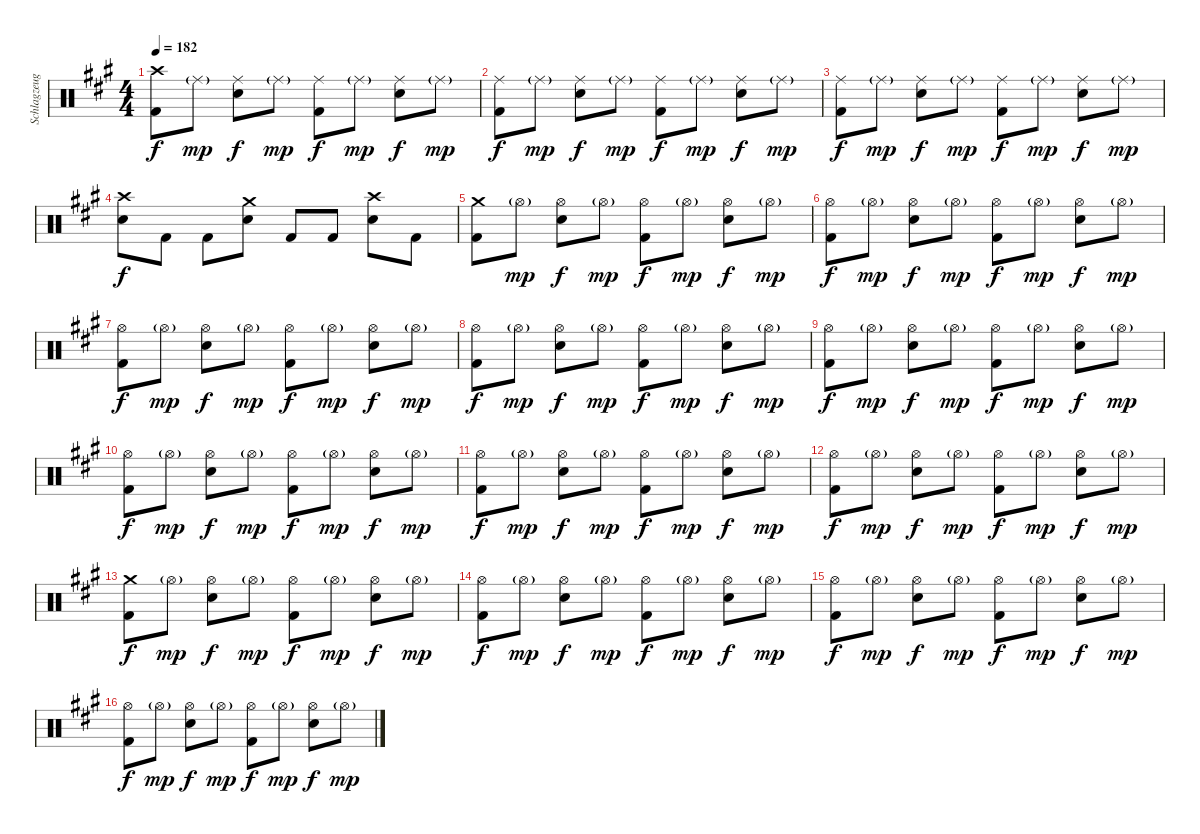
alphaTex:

\track ("Schlagzeug" "Schlagzeug") {instrument percussion}
\staff {score}
\articulation defaults
\ts (4 4)
\tempo 182
\clef neutral
\ks a
("Crash high (hit)" "Kick (hit) 2").8{dy f} "Ride (middle)"{g}.8{dy mp} ("Ride (middle)" "Snare (hit) 2").8{dy f} "Ride (middle)"{g}.8{dy mp} ("Ride (middle)" "Kick (hit) 2").8{dy f} "Ride (middle)"{g}.8{dy mp} ("Ride (middle)" "Snare (hit) 2").8{dy f} "Ride (middle)"{g}.8{dy mp} |
("Ride (middle)" "Kick (hit) 2").8{dy f} "Ride (middle)"{g}.8{dy mp} ("Ride (middle)" "Snare (hit) 2").8{dy f} "Ride (middle)"{g}.8{dy mp} ("Ride (middle)" "Kick (hit) 2").8{dy f} "Ride (middle)"{g}.8{dy mp} ("Ride (middle)" "Snare (hit) 2").8{dy f} "Ride (middle)"{g}.8{dy mp} |
("Ride (middle)" "Kick (hit) 2").8{dy f} "Ride (middle)"{g}.8{dy mp} ("Ride (middle)" "Snare (hit) 2").8{dy f} "Ride (middle)"{g}.8{dy mp} ("Ride (middle)" "Kick (hit) 2").8{dy f} "Ride (middle)"{g}.8{dy mp} ("Ride (middle)" "Snare (hit) 2").8{dy f} "Ride (middle)"{g}.8{dy mp} |
("Crash high (hit)" "Snare (hit) 2").8{dy f} "Kick (hit) 2".8 "Kick (hit) 2".8 ("Crash medium (hit)" "Snare (hit) 2").8 "Kick (hit) 2".8 "Kick (hit) 2".8 ("Crash high (hit)" "Snare (hit) 2").8 "Kick (hit) 2".8 |
("Crash medium (hit)" "Kick (hit) 2").8 "Hi-Hat (open)"{g}.8{dy mp} ("Hi-Hat (open)" "Snare (hit) 2").8{dy f} "Hi-Hat (open)"{g}.8{dy mp} ("Hi-Hat (open)" "Kick (hit) 2").8{dy f} "Hi-Hat (open)"{g}.8{dy mp} ("Hi-Hat (open)" "Snare (hit) 2").8{dy f} "Hi-Hat (open)"{g}.8{dy mp} |
("Hi-Hat (open)" "Kick (hit) 2").8{dy f} "Hi-Hat (open)"{g}.8{dy mp} ("Hi-Hat (open)" "Snare (hit) 2").8{dy f} "Hi-Hat (open)"{g}.8{dy mp} ("Hi-Hat (open)" "Kick (hit) 2").8{dy f} "Hi-Hat (open)"{g}.8{dy mp} ("Hi-Hat (open)" "Snare (hit) 2").8{dy f} "Hi-Hat (open)"{g}.8{dy mp} |
("Hi-Hat (open)" "Kick (hit) 2").8{dy f} "Hi-Hat (open)"{g}.8{dy mp} ("Hi-Hat (open)" "Snare (hit) 2").8{dy f} "Hi-Hat (open)"{g}.8{dy mp} ("Hi-Hat (open)" "Kick (hit) 2").8{dy f} "Hi-Hat (open)"{g}.8{dy mp} ("Hi-Hat (open)" "Snare (hit) 2").8{dy f} "Hi-Hat (open)"{g}.8{dy mp} |
("Hi-Hat (open)" "Kick (hit) 2").8{dy f} "Hi-Hat (open)"{g}.8{dy mp} ("Hi-Hat (open)" "Snare (hit) 2").8{dy f} "Hi-Hat (open)"{g}.8{dy mp} ("Hi-Hat (open)" "Kick (hit) 2").8{dy f} "Hi-Hat (open)"{g}.8{dy mp} ("Hi-Hat (open)" "Snare (hit) 2").8{dy f} "Hi-Hat (open)"{g}.8{dy mp} |
("Hi-Hat (open)" "Kick (hit) 2").8{dy f} "Hi-Hat (open)"{g}.8{dy mp} ("Hi-Hat (open)" "Snare (hit) 2").8{dy f} "Hi-Hat (open)"{g}.8{dy mp} ("Hi-Hat (open)" "Kick (hit) 2").8{dy f} "Hi-Hat (open)"{g}.8{dy mp} ("Hi-Hat (open)" "Snare (hit) 2").8{dy f} "Hi-Hat (open)"{g}.8{dy mp} |
("Hi-Hat (open)" "Kick (hit) 2").8{dy f} "Hi-Hat (open)"{g}.8{dy mp} ("Hi-Hat (open)" "Snare (hit) 2").8{dy f} "Hi-Hat (open)"{g}.8{dy mp} ("Hi-Hat (open)" "Kick (hit) 2").8{dy f} "Hi-Hat (open)"{g}.8{dy mp} ("Hi-Hat (open)" "Snare (hit) 2").8{dy f} "Hi-Hat (open)"{g}.8{dy mp} |
("Hi-Hat (open)" "Kick (hit) 2").8{dy f} "Hi-Hat (open)"{g}.8{dy mp} ("Hi-Hat (open)" "Snare (hit) 2").8{dy f} "Hi-Hat (open)"{g}.8{dy mp} ("Hi-Hat (open)" "Kick (hit) 2").8{dy f} "Hi-Hat (open)"{g}.8{dy mp} ("Hi-Hat (open)" "Snare (hit) 2").8{dy f} "Hi-Hat (open)"{g}.8{dy mp} |
("Hi-Hat (open)" "Kick (hit) 2").8{dy f} "Hi-Hat (open)"{g}.8{dy mp} ("Hi-Hat (open)" "Snare (hit) 2").8{dy f} "Hi-Hat (open)"{g}.8{dy mp} ("Hi-Hat (open)" "Kick (hit) 2").8{dy f} "Hi-Hat (open)"{g}.8{dy mp} ("Hi-Hat (open)" "Snare (hit) 2").8{dy f} "Hi-Hat (open)"{g}.8{dy mp} |
("Crash medium (hit)" "Kick (hit) 2").8{dy f} "Hi-Hat (open)"{g}.8{dy mp} ("Hi-Hat (open)" "Snare (hit) 2").8{dy f} "Hi-Hat (open)"{g}.8{dy mp} ("Hi-Hat (open)" "Kick (hit) 2").8{dy f} "Hi-Hat (open)"{g}.8{dy mp} ("Hi-Hat (open)" "Snare (hit) 2").8{dy f} "Hi-Hat (open)"{g}.8{dy mp} |
("Hi-Hat (open)" "Kick (hit) 2").8{dy f} "Hi-Hat (open)"{g}.8{dy mp} ("Hi-Hat (open)" "Snare (hit) 2").8{dy f} "Hi-Hat (open)"{g}.8{dy mp} ("Hi-Hat (open)" "Kick (hit) 2").8{dy f} "Hi-Hat (open)"{g}.8{dy mp} ("Hi-Hat (open)" "Snare (hit) 2").8{dy f} "Hi-Hat (open)"{g}.8{dy mp} |
("Hi-Hat (open)" "Kick (hit) 2").8{dy f} "Hi-Hat (open)"{g}.8{dy mp} ("Hi-Hat (open)" "Snare (hit) 2").8{dy f} "Hi-Hat (open)"{g}.8{dy mp} ("Hi-Hat (open)" "Kick (hit) 2").8{dy f} "Hi-Hat (open)"{g}.8{dy mp} ("Hi-Hat (open)" "Snare (hit) 2").8{dy f} "Hi-Hat (open)"{g}.8{dy mp} |
("Hi-Hat (open)" "Kick (hit) 2").8{dy f} "Hi-Hat (open)"{g}.8{dy mp} ("Hi-Hat (open)" "Snare (hit) 2").8{dy f} "Hi-Hat (open)"{g}.8{dy mp} ("Hi-Hat (open)" "Kick (hit) 2").8{dy f} "Hi-Hat (open)"{g}.8{dy mp} ("Hi-Hat (open)" "Snare (hit) 2").8{dy f} "Hi-Hat (open)"{g}.8{dy mp}
